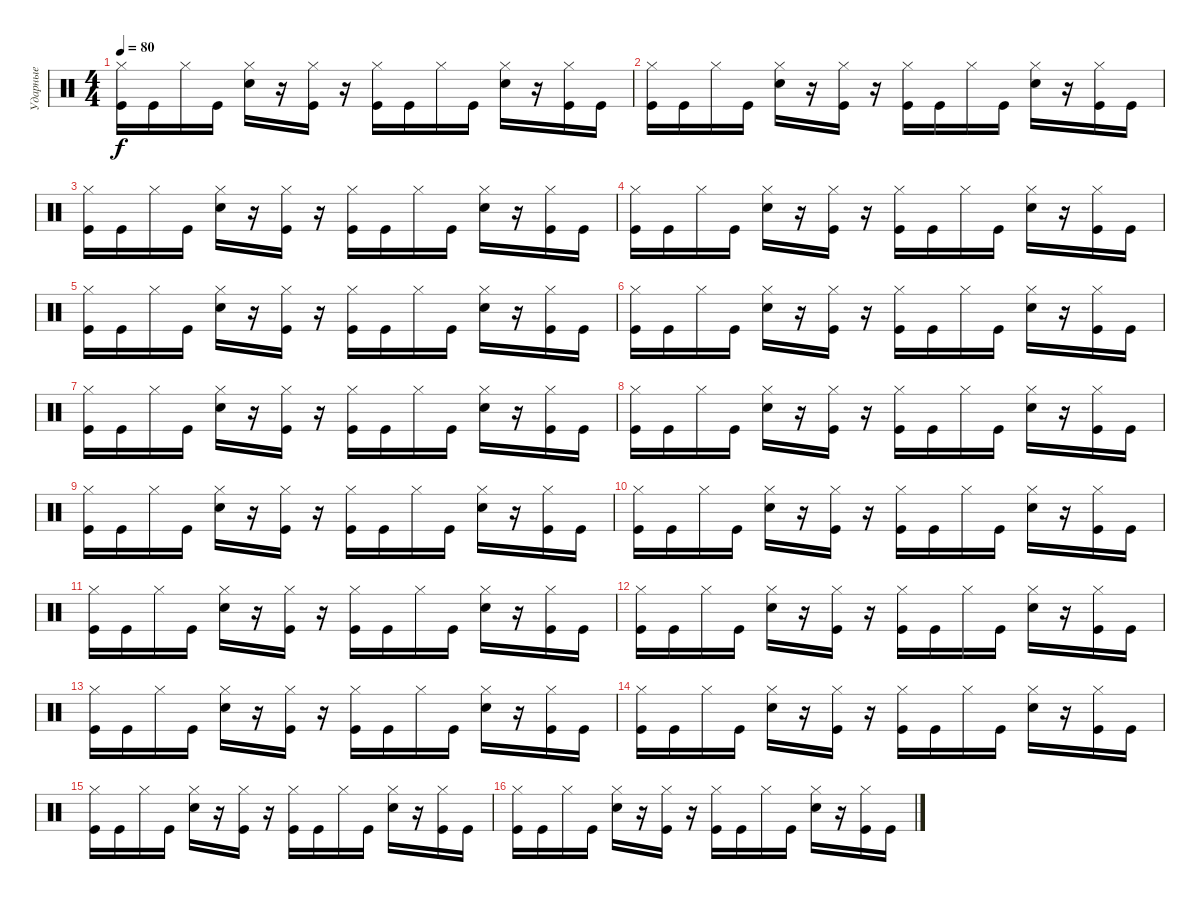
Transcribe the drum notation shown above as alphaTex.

\track ("Ударные" "Ударные") {instrument percussion}
\staff {score}
\articulation defaults
\ts (4 4)
\tempo 80
\clef neutral
\ks c
("Hi-Hat (closed)" "Kick (hit)").16{dy f} "Kick (hit)".16 "Hi-Hat (closed)".16 "Kick (hit)".16 ("Hi-Hat (closed)" "Electric Snare (hit)").16 r.16 ("Hi-Hat (closed)" "Kick (hit)").16 r.16 ("Hi-Hat (closed)" "Kick (hit)").16 "Kick (hit)".16 "Hi-Hat (closed)".16 "Kick (hit)".16 ("Hi-Hat (closed)" "Electric Snare (hit)").16 r.16 ("Hi-Hat (closed)" "Kick (hit)").16 "Kick (hit)".16 |
("Hi-Hat (closed)" "Kick (hit)").16 "Kick (hit)".16 "Hi-Hat (closed)".16 "Kick (hit)".16 ("Hi-Hat (closed)" "Electric Snare (hit)").16 r.16 ("Hi-Hat (closed)" "Kick (hit)").16 r.16 ("Hi-Hat (closed)" "Kick (hit)").16 "Kick (hit)".16 "Hi-Hat (closed)".16 "Kick (hit)".16 ("Hi-Hat (closed)" "Electric Snare (hit)").16 r.16 ("Hi-Hat (closed)" "Kick (hit)").16 "Kick (hit)".16 |
("Hi-Hat (closed)" "Kick (hit)").16 "Kick (hit)".16 "Hi-Hat (closed)".16 "Kick (hit)".16 ("Hi-Hat (closed)" "Electric Snare (hit)").16 r.16 ("Hi-Hat (closed)" "Kick (hit)").16 r.16 ("Hi-Hat (closed)" "Kick (hit)").16 "Kick (hit)".16 "Hi-Hat (closed)".16 "Kick (hit)".16 ("Hi-Hat (closed)" "Electric Snare (hit)").16 r.16 ("Hi-Hat (closed)" "Kick (hit)").16 "Kick (hit)".16 |
("Hi-Hat (closed)" "Kick (hit)").16 "Kick (hit)".16 "Hi-Hat (closed)".16 "Kick (hit)".16 ("Hi-Hat (closed)" "Electric Snare (hit)").16 r.16 ("Hi-Hat (closed)" "Kick (hit)").16 r.16 ("Hi-Hat (closed)" "Kick (hit)").16 "Kick (hit)".16 "Hi-Hat (closed)".16 "Kick (hit)".16 ("Hi-Hat (closed)" "Electric Snare (hit)").16 r.16 ("Hi-Hat (closed)" "Kick (hit)").16 "Kick (hit)".16 |
("Hi-Hat (closed)" "Kick (hit)").16 "Kick (hit)".16 "Hi-Hat (closed)".16 "Kick (hit)".16 ("Hi-Hat (closed)" "Electric Snare (hit)").16 r.16 ("Hi-Hat (closed)" "Kick (hit)").16 r.16 ("Hi-Hat (closed)" "Kick (hit)").16 "Kick (hit)".16 "Hi-Hat (closed)".16 "Kick (hit)".16 ("Hi-Hat (closed)" "Electric Snare (hit)").16 r.16 ("Hi-Hat (closed)" "Kick (hit)").16 "Kick (hit)".16 |
("Hi-Hat (closed)" "Kick (hit)").16 "Kick (hit)".16 "Hi-Hat (closed)".16 "Kick (hit)".16 ("Hi-Hat (closed)" "Electric Snare (hit)").16 r.16 ("Hi-Hat (closed)" "Kick (hit)").16 r.16 ("Hi-Hat (closed)" "Kick (hit)").16 "Kick (hit)".16 "Hi-Hat (closed)".16 "Kick (hit)".16 ("Hi-Hat (closed)" "Electric Snare (hit)").16 r.16 ("Hi-Hat (closed)" "Kick (hit)").16 "Kick (hit)".16 |
("Hi-Hat (closed)" "Kick (hit)").16 "Kick (hit)".16 "Hi-Hat (closed)".16 "Kick (hit)".16 ("Hi-Hat (closed)" "Electric Snare (hit)").16 r.16 ("Hi-Hat (closed)" "Kick (hit)").16 r.16 ("Hi-Hat (closed)" "Kick (hit)").16 "Kick (hit)".16 "Hi-Hat (closed)".16 "Kick (hit)".16 ("Hi-Hat (closed)" "Electric Snare (hit)").16 r.16 ("Hi-Hat (closed)" "Kick (hit)").16 "Kick (hit)".16 |
("Hi-Hat (closed)" "Kick (hit)").16 "Kick (hit)".16 "Hi-Hat (closed)".16 "Kick (hit)".16 ("Hi-Hat (closed)" "Electric Snare (hit)").16 r.16 ("Hi-Hat (closed)" "Kick (hit)").16 r.16 ("Hi-Hat (closed)" "Kick (hit)").16 "Kick (hit)".16 "Hi-Hat (closed)".16 "Kick (hit)".16 ("Hi-Hat (closed)" "Electric Snare (hit)").16 r.16 ("Hi-Hat (closed)" "Kick (hit)").16 "Kick (hit)".16 |
("Hi-Hat (closed)" "Kick (hit)").16 "Kick (hit)".16 "Hi-Hat (closed)".16 "Kick (hit)".16 ("Hi-Hat (closed)" "Electric Snare (hit)").16 r.16 ("Hi-Hat (closed)" "Kick (hit)").16 r.16 ("Hi-Hat (closed)" "Kick (hit)").16 "Kick (hit)".16 "Hi-Hat (closed)".16 "Kick (hit)".16 ("Hi-Hat (closed)" "Electric Snare (hit)").16 r.16 ("Hi-Hat (closed)" "Kick (hit)").16 "Kick (hit)".16 |
("Hi-Hat (closed)" "Kick (hit)").16 "Kick (hit)".16 "Hi-Hat (closed)".16 "Kick (hit)".16 ("Hi-Hat (closed)" "Electric Snare (hit)").16 r.16 ("Hi-Hat (closed)" "Kick (hit)").16 r.16 ("Hi-Hat (closed)" "Kick (hit)").16 "Kick (hit)".16 "Hi-Hat (closed)".16 "Kick (hit)".16 ("Hi-Hat (closed)" "Electric Snare (hit)").16 r.16 ("Hi-Hat (closed)" "Kick (hit)").16 "Kick (hit)".16 |
("Hi-Hat (closed)" "Kick (hit)").16 "Kick (hit)".16 "Hi-Hat (closed)".16 "Kick (hit)".16 ("Hi-Hat (closed)" "Electric Snare (hit)").16 r.16 ("Hi-Hat (closed)" "Kick (hit)").16 r.16 ("Hi-Hat (closed)" "Kick (hit)").16 "Kick (hit)".16 "Hi-Hat (closed)".16 "Kick (hit)".16 ("Hi-Hat (closed)" "Electric Snare (hit)").16 r.16 ("Hi-Hat (closed)" "Kick (hit)").16 "Kick (hit)".16 |
("Hi-Hat (closed)" "Kick (hit)").16 "Kick (hit)".16 "Hi-Hat (closed)".16 "Kick (hit)".16 ("Hi-Hat (closed)" "Electric Snare (hit)").16 r.16 ("Hi-Hat (closed)" "Kick (hit)").16 r.16 ("Hi-Hat (closed)" "Kick (hit)").16 "Kick (hit)".16 "Hi-Hat (closed)".16 "Kick (hit)".16 ("Hi-Hat (closed)" "Electric Snare (hit)").16 r.16 ("Hi-Hat (closed)" "Kick (hit)").16 "Kick (hit)".16 |
("Hi-Hat (closed)" "Kick (hit)").16 "Kick (hit)".16 "Hi-Hat (closed)".16 "Kick (hit)".16 ("Hi-Hat (closed)" "Electric Snare (hit)").16 r.16 ("Hi-Hat (closed)" "Kick (hit)").16 r.16 ("Hi-Hat (closed)" "Kick (hit)").16 "Kick (hit)".16 "Hi-Hat (closed)".16 "Kick (hit)".16 ("Hi-Hat (closed)" "Electric Snare (hit)").16 r.16 ("Hi-Hat (closed)" "Kick (hit)").16 "Kick (hit)".16 |
("Hi-Hat (closed)" "Kick (hit)").16 "Kick (hit)".16 "Hi-Hat (closed)".16 "Kick (hit)".16 ("Hi-Hat (closed)" "Electric Snare (hit)").16 r.16 ("Hi-Hat (closed)" "Kick (hit)").16 r.16 ("Hi-Hat (closed)" "Kick (hit)").16 "Kick (hit)".16 "Hi-Hat (closed)".16 "Kick (hit)".16 ("Hi-Hat (closed)" "Electric Snare (hit)").16 r.16 ("Hi-Hat (closed)" "Kick (hit)").16 "Kick (hit)".16 |
("Hi-Hat (closed)" "Kick (hit)").16 "Kick (hit)".16 "Hi-Hat (closed)".16 "Kick (hit)".16 ("Hi-Hat (closed)" "Electric Snare (hit)").16 r.16 ("Hi-Hat (closed)" "Kick (hit)").16 r.16 ("Hi-Hat (closed)" "Kick (hit)").16 "Kick (hit)".16 "Hi-Hat (closed)".16 "Kick (hit)".16 ("Hi-Hat (closed)" "Electric Snare (hit)").16 r.16 ("Hi-Hat (closed)" "Kick (hit)").16 "Kick (hit)".16 |
("Hi-Hat (closed)" "Kick (hit)").16 "Kick (hit)".16 "Hi-Hat (closed)".16 "Kick (hit)".16 ("Hi-Hat (closed)" "Electric Snare (hit)").16 r.16 ("Hi-Hat (closed)" "Kick (hit)").16 r.16 ("Hi-Hat (closed)" "Kick (hit)").16 "Kick (hit)".16 "Hi-Hat (closed)".16 "Kick (hit)".16 ("Hi-Hat (closed)" "Electric Snare (hit)").16 r.16 ("Hi-Hat (closed)" "Kick (hit)").16 "Kick (hit)".16
